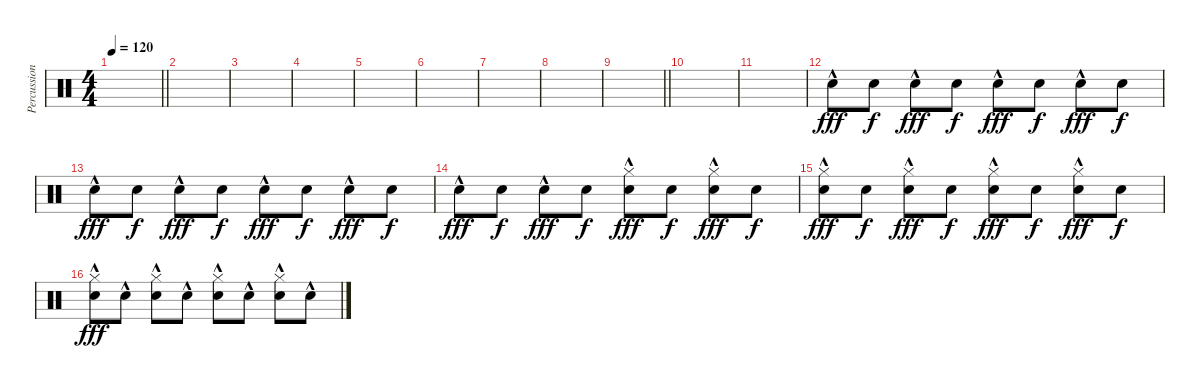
\track ("Percussion" "Percussion") {instrument percussion}
\staff {score}
\articulation defaults
\ts (4 4)
\tempo 120
\clef neutral
\barLineRight lightlight
\ks c
|
|
|
|
|
|
|
|
\barLineRight lightlight
|
|
|
"Snare (hit) 2"{hac}.8{dy fff volume 1} "Snare (hit) 2".8{dy f} "Snare (hit) 2"{hac}.8{dy fff} "Snare (hit) 2".8{dy f} "Snare (hit) 2"{hac}.8{dy fff} "Snare (hit) 2".8{dy f} "Snare (hit) 2"{hac}.8{dy fff} "Snare (hit) 2".8{dy f} |
"Snare (hit) 2"{hac}.8{dy fff volume 2} "Snare (hit) 2".8{dy f} "Snare (hit) 2"{hac}.8{dy fff} "Snare (hit) 2".8{dy f} "Snare (hit) 2"{hac}.8{dy fff} "Snare (hit) 2".8{dy f} "Snare (hit) 2"{hac}.8{dy fff} "Snare (hit) 2".8{dy f} |
"Snare (hit) 2"{hac}.8{dy fff} "Snare (hit) 2".8{dy f} "Snare (hit) 2"{hac}.8{dy fff} "Snare (hit) 2".8{dy f} ("Hi-Hat (closed)" "Snare (hit) 2"{hac}).8{dy fff} "Snare (hit) 2".8{dy f} ("Hi-Hat (closed)" "Snare (hit) 2"{hac}).8{dy fff} "Snare (hit) 2".8{dy f} |
("Hi-Hat (closed)" "Snare (hit) 2"{hac}).8{dy fff volume 11} "Snare (hit) 2".8{dy f} ("Hi-Hat (closed)" "Snare (hit) 2"{hac}).8{dy fff} "Snare (hit) 2".8{dy f} ("Hi-Hat (closed)" "Snare (hit) 2"{hac}).8{dy fff} "Snare (hit) 2".8{dy f} ("Hi-Hat (closed)" "Snare (hit) 2"{hac}).8{dy fff} "Snare (hit) 2".8{dy f} |
("Hi-Hat (closed)" "Snare (hit) 2"{hac}).8{dy fff} "Snare (hit) 2"{hac}.8 ("Hi-Hat (closed)" "Snare (hit) 2"{hac}).8 "Snare (hit) 2"{hac}.8 ("Hi-Hat (closed)" "Snare (hit) 2"{hac}).8 "Snare (hit) 2"{hac}.8 ("Hi-Hat (closed)" "Snare (hit) 2"{hac}).8 "Snare (hit) 2"{hac}.8
